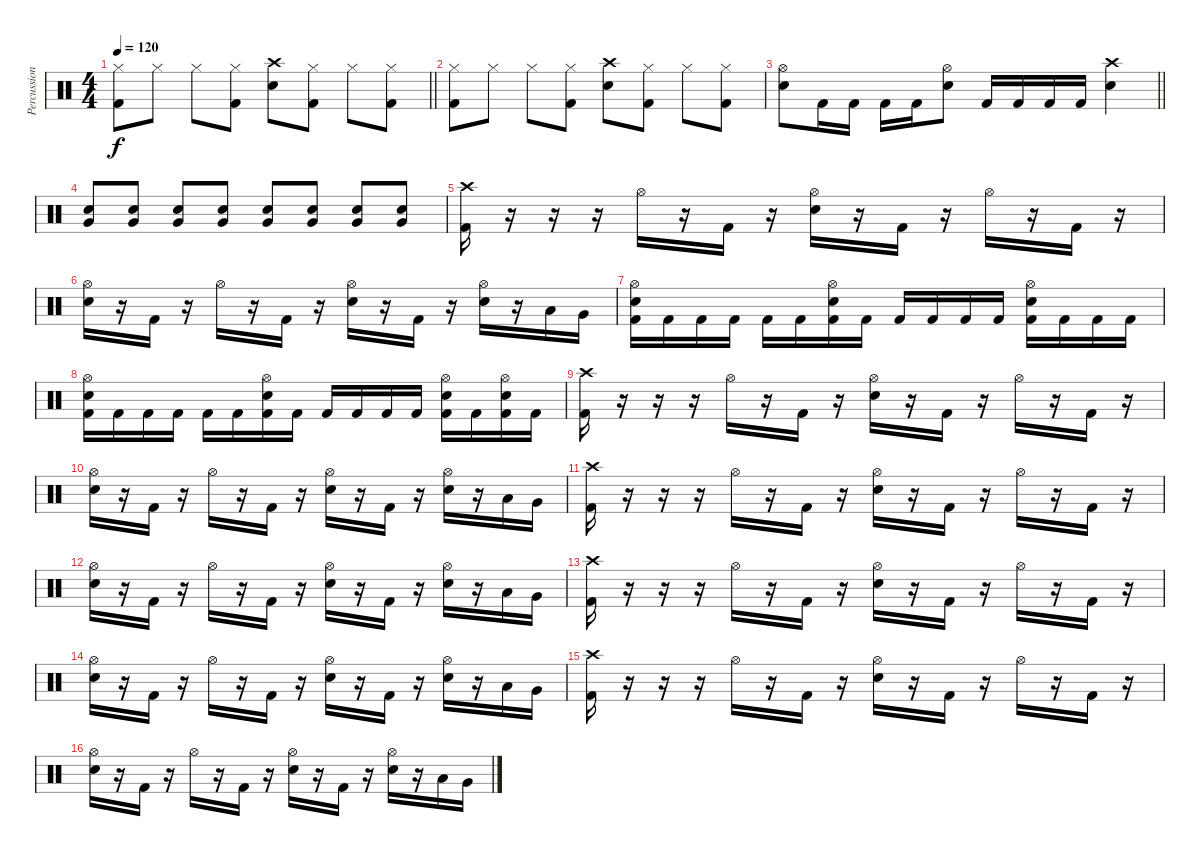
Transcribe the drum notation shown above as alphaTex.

\track ("Percussion" "Percussion") {instrument percussion}
\staff {score}
\articulation defaults
\ts (4 4)
\tempo 120
\clef neutral
\barLineRight lightlight
\ks c
("Hi-Hat (closed)" "Kick (hit) 2").8{dy f} "Hi-Hat (closed)".8 "Hi-Hat (closed)".8 ("Hi-Hat (closed)" "Kick (hit) 2").8 ("Crash high (hit)" "Electric Snare (hit)").8 ("Hi-Hat (closed)" "Kick (hit) 2").8 "Hi-Hat (closed)".8 ("Hi-Hat (closed)" "Kick (hit) 2").8 |
("Hi-Hat (closed)" "Kick (hit) 2").8 "Hi-Hat (closed)".8 "Hi-Hat (closed)".8 ("Hi-Hat (closed)" "Kick (hit) 2").8 ("Crash high (hit)" "Electric Snare (hit)").8 ("Hi-Hat (closed)" "Kick (hit) 2").8 "Hi-Hat (closed)".8 ("Hi-Hat (closed)" "Kick (hit) 2").8 |
\barLineRight lightlight
("Hi-Hat (open)" "Electric Snare (hit)").8 "Kick (hit) 2".16 "Kick (hit) 2".16 "Kick (hit) 2".16 "Kick (hit) 2".16 ("Hi-Hat (open)" "Electric Snare (hit)").8 "Kick (hit) 2".16 "Kick (hit) 2".16 "Kick (hit) 2".16 "Kick (hit) 2".16 ("Crash high (hit)" "Electric Snare (hit)").4 |
("Very Low Tom (hit)" "Snare (hit) 2").8 ("Very Low Tom (hit)" "Snare (hit) 2").8 ("Very Low Tom (hit)" "Snare (hit) 2").8 ("Very Low Tom (hit)" "Snare (hit) 2").8 ("Very Low Tom (hit)" "Snare (hit) 2").8 ("Very Low Tom (hit)" "Snare (hit) 2").8 ("Very Low Tom (hit)" "Snare (hit) 2").8 ("Very Low Tom (hit)" "Snare (hit) 2").8 |
("Crash high (hit)" "Kick (hit) 2").16 r.16 r.16 r.16 "Hi-Hat (open)".16 r.16 "Kick (hit) 2".16 r.16 ("Hi-Hat (open)" "Electric Snare (hit)").16 r.16 "Kick (hit) 2".16 r.16 "Hi-Hat (open)".16 r.16 "Kick (hit) 2".16 r.16 |
("Hi-Hat (open)" "Electric Snare (hit)").16 r.16 "Kick (hit) 2".16 r.16 "Hi-Hat (open)".16 r.16 "Kick (hit) 2".16 r.16 ("Hi-Hat (open)" "Electric Snare (hit)").16 r.16 "Kick (hit) 2".16 r.16 ("Hi-Hat (open)" "Electric Snare (hit)").16 r.16 "Low Floor Tom (hit)".16 "Very Low Tom (hit)".16 |
("Hi-Hat (open)" "Electric Snare (hit)" "Kick (hit) 2").16 "Kick (hit) 2".16 "Kick (hit) 2".16 "Kick (hit) 2".16 "Kick (hit) 2".16 "Kick (hit) 2".16 ("Hi-Hat (open)" "Electric Snare (hit)" "Kick (hit) 2").16 "Kick (hit) 2".16 "Kick (hit) 2".16 "Kick (hit) 2".16 "Kick (hit) 2".16 "Kick (hit) 2".16 ("Hi-Hat (open)" "Electric Snare (hit)" "Kick (hit) 2").16 "Kick (hit) 2".16 "Kick (hit) 2".16 "Kick (hit) 2".16 |
("Hi-Hat (open)" "Electric Snare (hit)" "Kick (hit) 2").16 "Kick (hit) 2".16 "Kick (hit) 2".16 "Kick (hit) 2".16 "Kick (hit) 2".16 "Kick (hit) 2".16 ("Hi-Hat (open)" "Electric Snare (hit)" "Kick (hit) 2").16 "Kick (hit) 2".16 "Kick (hit) 2".16 "Kick (hit) 2".16 "Kick (hit) 2".16 "Kick (hit) 2".16 ("Hi-Hat (open)" "Electric Snare (hit)" "Kick (hit) 2").16 "Kick (hit) 2".16 ("Hi-Hat (open)" "Electric Snare (hit)" "Kick (hit) 2").16 "Kick (hit) 2".16 |
("Crash high (hit)" "Kick (hit) 2").16 r.16 r.16 r.16 "Hi-Hat (open)".16 r.16 "Kick (hit) 2".16 r.16 ("Hi-Hat (open)" "Electric Snare (hit)").16 r.16 "Kick (hit) 2".16 r.16 "Hi-Hat (open)".16 r.16 "Kick (hit) 2".16 r.16 |
("Hi-Hat (open)" "Electric Snare (hit)").16 r.16 "Kick (hit) 2".16 r.16 "Hi-Hat (open)".16 r.16 "Kick (hit) 2".16 r.16 ("Hi-Hat (open)" "Electric Snare (hit)").16 r.16 "Kick (hit) 2".16 r.16 ("Hi-Hat (open)" "Electric Snare (hit)").16 r.16 "Low Floor Tom (hit)".16 "Very Low Tom (hit)".16 |
("Crash high (hit)" "Kick (hit) 2").16 r.16 r.16 r.16 "Hi-Hat (open)".16 r.16 "Kick (hit) 2".16 r.16 ("Hi-Hat (open)" "Electric Snare (hit)").16 r.16 "Kick (hit) 2".16 r.16 "Hi-Hat (open)".16 r.16 "Kick (hit) 2".16 r.16 |
("Hi-Hat (open)" "Electric Snare (hit)").16 r.16 "Kick (hit) 2".16 r.16 "Hi-Hat (open)".16 r.16 "Kick (hit) 2".16 r.16 ("Hi-Hat (open)" "Electric Snare (hit)").16 r.16 "Kick (hit) 2".16 r.16 ("Hi-Hat (open)" "Electric Snare (hit)").16 r.16 "Low Floor Tom (hit)".16 "Very Low Tom (hit)".16 |
("Crash high (hit)" "Kick (hit) 2").16 r.16 r.16 r.16 "Hi-Hat (open)".16 r.16 "Kick (hit) 2".16 r.16 ("Hi-Hat (open)" "Electric Snare (hit)").16 r.16 "Kick (hit) 2".16 r.16 "Hi-Hat (open)".16 r.16 "Kick (hit) 2".16 r.16 |
("Hi-Hat (open)" "Electric Snare (hit)").16 r.16 "Kick (hit) 2".16 r.16 "Hi-Hat (open)".16 r.16 "Kick (hit) 2".16 r.16 ("Hi-Hat (open)" "Electric Snare (hit)").16 r.16 "Kick (hit) 2".16 r.16 ("Hi-Hat (open)" "Electric Snare (hit)").16 r.16 "Low Floor Tom (hit)".16 "Very Low Tom (hit)".16 |
("Crash high (hit)" "Kick (hit) 2").16 r.16 r.16 r.16 "Hi-Hat (open)".16 r.16 "Kick (hit) 2".16 r.16 ("Hi-Hat (open)" "Electric Snare (hit)").16 r.16 "Kick (hit) 2".16 r.16 "Hi-Hat (open)".16 r.16 "Kick (hit) 2".16 r.16 |
("Hi-Hat (open)" "Electric Snare (hit)").16 r.16 "Kick (hit) 2".16 r.16 "Hi-Hat (open)".16 r.16 "Kick (hit) 2".16 r.16 ("Hi-Hat (open)" "Electric Snare (hit)").16 r.16 "Kick (hit) 2".16 r.16 ("Hi-Hat (open)" "Electric Snare (hit)").16 r.16 "Low Floor Tom (hit)".16 "Very Low Tom (hit)".16
